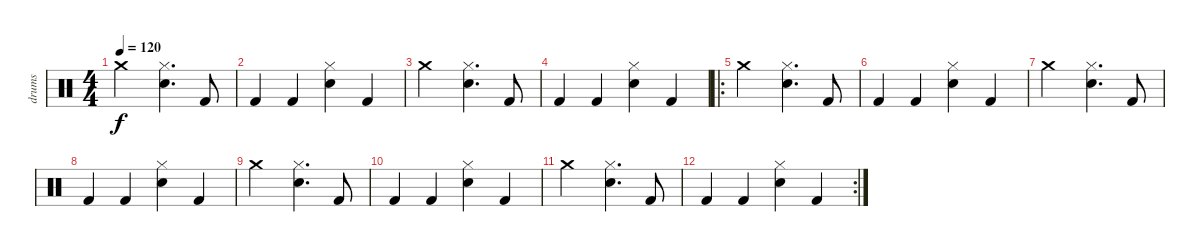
\track ("drums" "drums") {instrument percussion}
\staff {score}
\articulation defaults
\ts (4 4)
\tempo 120
\clef neutral
\ks c "Crash medium (hit)".2{dy f}
("Snare (hit) 2" "Hi-Hat (closed)").4{d} "Kick (hit) 2".8 |
"Kick (hit) 2".4 "Kick (hit) 2".4 ("Snare (hit) 2" "Hi-Hat (closed)").4 "Kick (hit) 2".4 |
"Crash medium (hit)".2 ("Snare (hit) 2" "Hi-Hat (closed)").4{d} "Kick (hit) 2".8 |
"Kick (hit) 2".4 "Kick (hit) 2".4 ("Snare (hit) 2" "Hi-Hat (closed)").4 "Kick (hit) 2".4 |
\ro "Crash medium (hit)".2
("Snare (hit) 2" "Hi-Hat (closed)").4{d} "Kick (hit) 2".8 |
"Kick (hit) 2".4 "Kick (hit) 2".4 ("Snare (hit) 2" "Hi-Hat (closed)").4 "Kick (hit) 2".4 |
"Crash medium (hit)".2 ("Snare (hit) 2" "Hi-Hat (closed)").4{d} "Kick (hit) 2".8 |
"Kick (hit) 2".4 "Kick (hit) 2".4 ("Snare (hit) 2" "Hi-Hat (closed)").4 "Kick (hit) 2".4 |
"Crash medium (hit)".2 ("Snare (hit) 2" "Hi-Hat (closed)").4{d} "Kick (hit) 2".8 |
"Kick (hit) 2".4 "Kick (hit) 2".4 ("Snare (hit) 2" "Hi-Hat (closed)").4 "Kick (hit) 2".4 |
"Crash medium (hit)".2 ("Snare (hit) 2" "Hi-Hat (closed)").4{d} "Kick (hit) 2".8 |
\rc 2 "Kick (hit) 2".4 "Kick (hit) 2".4
("Snare (hit) 2" "Hi-Hat (closed)").4 "Kick (hit) 2".4
